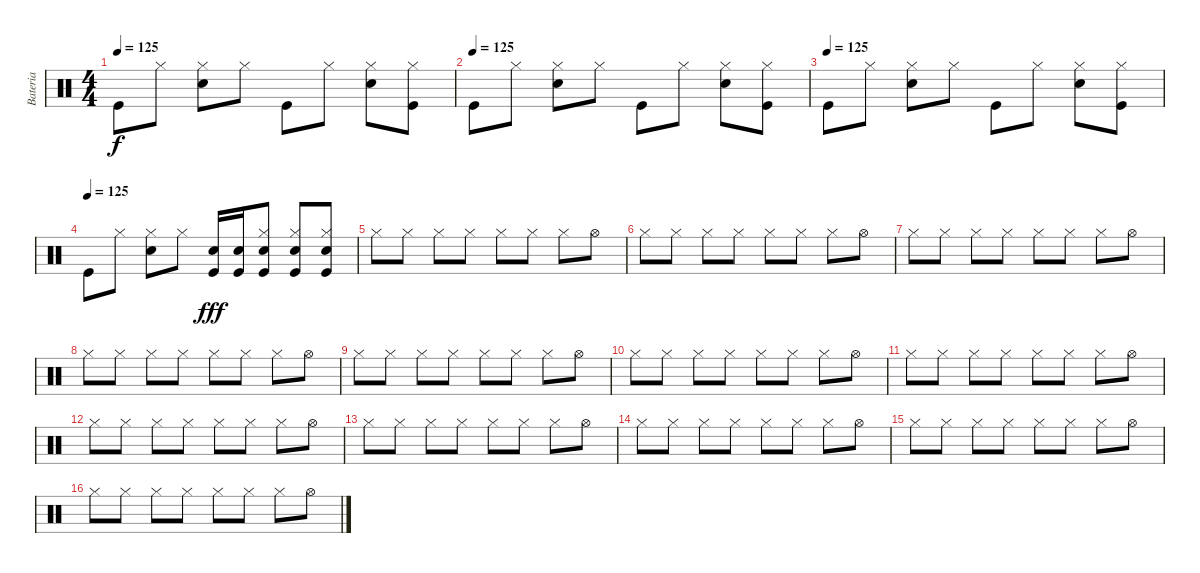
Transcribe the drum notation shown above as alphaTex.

\track ("Bateria" "Bateria") {instrument percussion}
\staff {score}
\articulation defaults
\ts (4 4)
\tempo 125
\clef neutral
\ks c "Kick (hit)".8{dy f} "Hi-Hat (closed)".8
("Snare (hit) 2" "Hi-Hat (closed)").8 "Hi-Hat (closed)".8 "Kick (hit)".8 "Hi-Hat (closed)".8 ("Snare (hit) 2" "Hi-Hat (closed)").8 ("Hi-Hat (closed)" "Kick (hit)").8 |
\tempo (125)
"Kick (hit)".8 "Hi-Hat (closed)".8 ("Snare (hit) 2" "Hi-Hat (closed)").8 "Hi-Hat (closed)".8 "Kick (hit)".8 "Hi-Hat (closed)".8 ("Snare (hit) 2" "Hi-Hat (closed)").8 ("Hi-Hat (closed)" "Kick (hit)").8 |
\tempo (125)
"Kick (hit)".8 "Hi-Hat (closed)".8 ("Snare (hit) 2" "Hi-Hat (closed)").8 "Hi-Hat (closed)".8 "Kick (hit)".8 "Hi-Hat (closed)".8 ("Snare (hit) 2" "Hi-Hat (closed)").8 ("Hi-Hat (closed)" "Kick (hit)").8 |
\tempo (125)
"Kick (hit)".8 "Hi-Hat (closed)".8 ("Snare (hit) 2" "Hi-Hat (closed)").8 "Hi-Hat (closed)".8 ("Snare (hit) 2" "Kick (hit)").16{dy fff} ("Snare (hit) 2" "Kick (hit)").16 ("Snare (hit) 2" "Hi-Hat (closed)" "Kick (hit)").8 ("Snare (hit) 2" "Hi-Hat (closed)" "Kick (hit)").8 ("Snare (hit) 2" "Hi-Hat (closed)" "Kick (hit)").8 |
"Hi-Hat (closed)".8 "Hi-Hat (closed)".8 "Hi-Hat (closed)".8 "Hi-Hat (closed)".8 "Hi-Hat (closed)".8 "Hi-Hat (closed)".8 "Hi-Hat (closed)".8 "Hi-Hat (open)".8 |
"Hi-Hat (closed)".8 "Hi-Hat (closed)".8 "Hi-Hat (closed)".8 "Hi-Hat (closed)".8 "Hi-Hat (closed)".8 "Hi-Hat (closed)".8 "Hi-Hat (closed)".8 "Hi-Hat (open)".8 |
"Hi-Hat (closed)".8 "Hi-Hat (closed)".8 "Hi-Hat (closed)".8 "Hi-Hat (closed)".8 "Hi-Hat (closed)".8 "Hi-Hat (closed)".8 "Hi-Hat (closed)".8 "Hi-Hat (open)".8 |
"Hi-Hat (closed)".8 "Hi-Hat (closed)".8 "Hi-Hat (closed)".8 "Hi-Hat (closed)".8 "Hi-Hat (closed)".8 "Hi-Hat (closed)".8 "Hi-Hat (closed)".8 "Hi-Hat (open)".8 |
"Hi-Hat (closed)".8 "Hi-Hat (closed)".8 "Hi-Hat (closed)".8 "Hi-Hat (closed)".8 "Hi-Hat (closed)".8 "Hi-Hat (closed)".8 "Hi-Hat (closed)".8 "Hi-Hat (open)".8 |
"Hi-Hat (closed)".8 "Hi-Hat (closed)".8 "Hi-Hat (closed)".8 "Hi-Hat (closed)".8 "Hi-Hat (closed)".8 "Hi-Hat (closed)".8 "Hi-Hat (closed)".8 "Hi-Hat (open)".8 |
"Hi-Hat (closed)".8 "Hi-Hat (closed)".8 "Hi-Hat (closed)".8 "Hi-Hat (closed)".8 "Hi-Hat (closed)".8 "Hi-Hat (closed)".8 "Hi-Hat (closed)".8 "Hi-Hat (open)".8 |
"Hi-Hat (closed)".8 "Hi-Hat (closed)".8 "Hi-Hat (closed)".8 "Hi-Hat (closed)".8 "Hi-Hat (closed)".8 "Hi-Hat (closed)".8 "Hi-Hat (closed)".8 "Hi-Hat (open)".8 |
"Hi-Hat (closed)".8 "Hi-Hat (closed)".8 "Hi-Hat (closed)".8 "Hi-Hat (closed)".8 "Hi-Hat (closed)".8 "Hi-Hat (closed)".8 "Hi-Hat (closed)".8 "Hi-Hat (open)".8 |
"Hi-Hat (closed)".8 "Hi-Hat (closed)".8 "Hi-Hat (closed)".8 "Hi-Hat (closed)".8 "Hi-Hat (closed)".8 "Hi-Hat (closed)".8 "Hi-Hat (closed)".8 "Hi-Hat (open)".8 |
"Hi-Hat (closed)".8 "Hi-Hat (closed)".8 "Hi-Hat (closed)".8 "Hi-Hat (closed)".8 "Hi-Hat (closed)".8 "Hi-Hat (closed)".8 "Hi-Hat (closed)".8 "Hi-Hat (open)".8 |
"Hi-Hat (closed)".8 "Hi-Hat (closed)".8 "Hi-Hat (closed)".8 "Hi-Hat (closed)".8 "Hi-Hat (closed)".8 "Hi-Hat (closed)".8 "Hi-Hat (closed)".8 "Hi-Hat (open)".8
